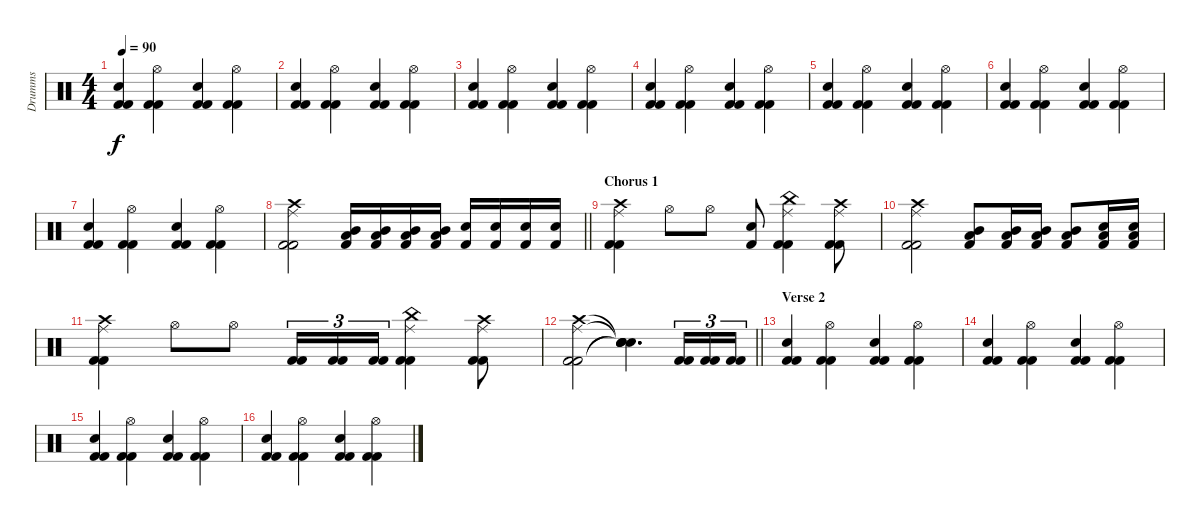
\track ("Drumms" "Drumms") {instrument percussion}
\staff {score}
\articulation defaults
\ts (4 4)
\tempo 90
\clef neutral
\ks c
("Kick (hit) 2" "Snare (hit) 2" "Kick (hit) 2").4{dy f} ("Kick (hit) 2" "Hi-Hat (open)" "Kick (hit) 2").4 ("Kick (hit) 2" "Snare (hit) 2" "Kick (hit) 2").4 ("Kick (hit) 2" "Hi-Hat (open)" "Kick (hit) 2").4 |
("Kick (hit) 2" "Snare (hit) 2" "Kick (hit) 2").4 ("Kick (hit) 2" "Hi-Hat (open)" "Kick (hit) 2").4 ("Kick (hit) 2" "Snare (hit) 2" "Kick (hit) 2").4 ("Kick (hit) 2" "Hi-Hat (open)" "Kick (hit) 2").4 |
("Kick (hit) 2" "Snare (hit) 2" "Kick (hit) 2").4 ("Kick (hit) 2" "Hi-Hat (open)" "Kick (hit) 2").4 ("Kick (hit) 2" "Snare (hit) 2" "Kick (hit) 2").4 ("Kick (hit) 2" "Hi-Hat (open)" "Kick (hit) 2").4 |
("Kick (hit) 2" "Snare (hit) 2" "Kick (hit) 2").4 ("Kick (hit) 2" "Hi-Hat (open)" "Kick (hit) 2").4 ("Kick (hit) 2" "Snare (hit) 2" "Kick (hit) 2").4 ("Kick (hit) 2" "Hi-Hat (open)" "Kick (hit) 2").4 |
("Kick (hit) 2" "Snare (hit) 2" "Kick (hit) 2").4 ("Kick (hit) 2" "Hi-Hat (open)" "Kick (hit) 2").4 ("Kick (hit) 2" "Snare (hit) 2" "Kick (hit) 2").4 ("Kick (hit) 2" "Hi-Hat (open)" "Kick (hit) 2").4 |
("Kick (hit) 2" "Snare (hit) 2" "Kick (hit) 2").4 ("Kick (hit) 2" "Hi-Hat (open)" "Kick (hit) 2").4 ("Kick (hit) 2" "Snare (hit) 2" "Kick (hit) 2").4 ("Kick (hit) 2" "Hi-Hat (open)" "Kick (hit) 2").4 |
("Kick (hit) 2" "Snare (hit) 2" "Kick (hit) 2").4 ("Kick (hit) 2" "Hi-Hat (open)" "Kick (hit) 2").4 ("Kick (hit) 2" "Snare (hit) 2" "Kick (hit) 2").4 ("Kick (hit) 2" "Hi-Hat (open)" "Kick (hit) 2").4 |
\barLineRight lightlight
("Crash high (hit)" "Ride (middle)" "Kick (hit) 2" "Kick (hit) 2").2 ("Mid Tom (hit)" "Kick (hit) 2" "Low Floor Tom (hit)").16 ("Mid Tom (hit)" "Kick (hit) 2" "Low Floor Tom (hit)").16 ("Mid Tom (hit)" "Kick (hit) 2" "Low Floor Tom (hit)").16 ("Mid Tom (hit)" "Kick (hit) 2" "Low Floor Tom (hit)").16 ("Snare (hit) 2" "Kick (hit) 2").16 ("Snare (hit) 2" "Kick (hit) 2").16 ("Snare (hit) 2" "Kick (hit) 2").16 ("Snare (hit) 2" "Kick (hit) 2").16 |
\section ("" "Chorus 1")
("Crash high (hit)" "Ride (middle)" "Kick (hit) 2" "Kick (hit) 2").4 "Hi-Hat (open)".8 "Hi-Hat (open)".8 ("Snare (hit) 2" "Kick (hit) 2").8 ("China (hit)" "Ride (middle)" "Kick (hit) 2" "Kick (hit) 2").4 ("Crash high (hit)" "Ride (middle)" "Kick (hit) 2" "Kick (hit) 2").8 |
("Crash high (hit)" "Ride (middle)" "Kick (hit) 2" "Kick (hit) 2").2 ("Low Floor Tom (hit)" "Kick (hit) 2" "Mid Tom (hit)").8 ("Low Floor Tom (hit)" "Kick (hit) 2" "Mid Tom (hit)").16 ("Low Floor Tom (hit)" "Kick (hit) 2" "Mid Tom (hit)").16 ("Low Floor Tom (hit)" "Kick (hit) 2" "Mid Tom (hit)").8 ("Low Floor Tom (hit)" "Snare (hit) 2" "Kick (hit) 2").16 ("Low Floor Tom (hit)" "Snare (hit) 2" "Kick (hit) 2").16 |
("Crash high (hit)" "Ride (middle)" "Kick (hit) 2" "Kick (hit) 2").4 "Hi-Hat (open)".8 "Hi-Hat (open)".8 ("Kick (hit) 2" "Kick (hit) 2").16{tu (3 2)} ("Kick (hit) 2" "Kick (hit) 2").16{tu (3 2)} ("Kick (hit) 2" "Kick (hit) 2").16{tu (3 2)} ("China (hit)" "Ride (middle)" "Kick (hit) 2" "Kick (hit) 2").4 ("Crash high (hit)" "Ride (middle)" "Kick (hit) 2" "Kick (hit) 2").8 |
\barLineRight lightlight
("Crash high (hit)" "Ride (middle)" "Kick (hit) 2" "Kick (hit) 2").2 ("Snare (hit)"{t} "Snare (hit)"{t} "Snare (hit)"{t} "Snare (hit)"{t}).4{d} ("Kick (hit) 2" "Kick (hit) 2").16{tu (3 2)} ("Kick (hit) 2" "Kick (hit) 2").16{tu (3 2)} ("Kick (hit) 2" "Kick (hit) 2").16{tu (3 2)} |
\section ("" "Verse 2")
("Kick (hit) 2" "Snare (hit) 2" "Kick (hit) 2").4 ("Kick (hit) 2" "Hi-Hat (open)" "Kick (hit) 2").4 ("Kick (hit) 2" "Snare (hit) 2" "Kick (hit) 2").4 ("Kick (hit) 2" "Hi-Hat (open)" "Kick (hit) 2").4 |
("Kick (hit) 2" "Snare (hit) 2" "Kick (hit) 2").4 ("Kick (hit) 2" "Hi-Hat (open)" "Kick (hit) 2").4 ("Kick (hit) 2" "Snare (hit) 2" "Kick (hit) 2").4 ("Kick (hit) 2" "Hi-Hat (open)" "Kick (hit) 2").4 |
("Kick (hit) 2" "Snare (hit) 2" "Kick (hit) 2").4 ("Kick (hit) 2" "Hi-Hat (open)" "Kick (hit) 2").4 ("Kick (hit) 2" "Snare (hit) 2" "Kick (hit) 2").4 ("Kick (hit) 2" "Hi-Hat (open)" "Kick (hit) 2").4 |
("Kick (hit) 2" "Snare (hit) 2" "Kick (hit) 2").4 ("Kick (hit) 2" "Hi-Hat (open)" "Kick (hit) 2").4 ("Kick (hit) 2" "Snare (hit) 2" "Kick (hit) 2").4 ("Kick (hit) 2" "Hi-Hat (open)" "Kick (hit) 2").4
